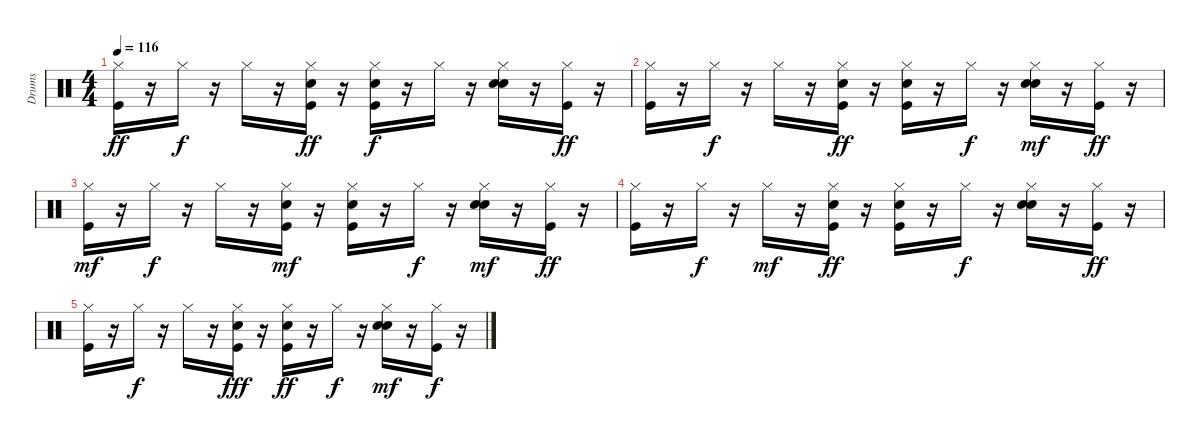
\track ("Drums   " "Drums   ") {instrument percussion}
\staff {score}
\articulation defaults
\ts (4 4)
\tempo 116
\clef neutral
\ks c
("Hi-Hat (closed)" "Kick (hit)").16{dy ff volume 10} r.16 "Hi-Hat (closed)".16{dy f volume 9} r.16 "Hi-Hat (closed)".16{volume 9} r.16 ("Hi-Hat (closed)" "Hand Clap (hit)" "Kick (hit)").16{dy ff volume 9} r.16 ("Hi-Hat (closed)" "Hand Clap (hit)" "Kick (hit)").16{dy f volume 9} r.16 "Hi-Hat (closed)".16{volume 8} r.16 ("Hi-Hat (closed)" "Hand Clap (hit)" "Snare (hit) 2").16{volume 8} r.16 ("Hi-Hat (closed)" "Kick (hit)").16{dy ff volume 8} r.16 |
("Hi-Hat (closed)" "Kick (hit)").16{volume 8} r.16 "Hi-Hat (closed)".16{dy f volume 7} r.16 "Hi-Hat (closed)".16{volume 7} r.16 ("Hi-Hat (closed)" "Hand Clap (hit)" "Kick (hit)").16{dy ff volume 7} r.16 ("Hi-Hat (closed)" "Hand Clap (hit)" "Kick (hit)").16{volume 7} r.16 "Hi-Hat (closed)".16{dy f volume 6} r.16 ("Hi-Hat (closed)" "Hand Clap (hit)" "Snare (hit) 2").16{dy mf volume 6} r.16 ("Hi-Hat (closed)" "Kick (hit)").16{dy ff volume 6} r.16 |
("Hi-Hat (closed)" "Kick (hit)").16{dy mf volume 6} r.16 "Hi-Hat (closed)".16{dy f volume 6} r.16 "Hi-Hat (closed)".16{volume 5} r.16 ("Hi-Hat (closed)" "Hand Clap (hit)" "Kick (hit)").16{dy mf volume 5} r.16 ("Hi-Hat (closed)" "Hand Clap (hit)" "Kick (hit)").16{volume 5} r.16 "Hi-Hat (closed)".16{dy f volume 4} r.16 ("Hi-Hat (closed)" "Hand Clap (hit)" "Snare (hit) 2").16{dy mf volume 4} r.16 ("Hi-Hat (closed)" "Kick (hit)").16{dy ff volume 4} r.16 |
("Hi-Hat (closed)" "Kick (hit)").16{volume 4} r.16 "Hi-Hat (closed)".16{dy f volume 4} r.16 "Hi-Hat (closed)".16{dy mf volume 3} r.16 ("Hi-Hat (closed)" "Hand Clap (hit)" "Kick (hit)").16{dy ff volume 3} r.16 ("Hi-Hat (closed)" "Hand Clap (hit)" "Kick (hit)").16{volume 3} r.16 "Hi-Hat (closed)".16{dy f volume 3} r.16 ("Hi-Hat (closed)" "Hand Clap (hit)" "Snare (hit) 2").16{volume 2} r.16 ("Hi-Hat (closed)" "Kick (hit)").16{dy ff volume 2} r.16 |
("Hi-Hat (closed)" "Kick (hit)").16{volume 2} r.16 "Hi-Hat (closed)".16{dy f volume 2} r.16 "Hi-Hat (closed)".16{volume 1} r.16 ("Hi-Hat (closed)" "Hand Clap (hit)" "Kick (hit)").16{dy fff volume 1} r.16 ("Hi-Hat (closed)" "Hand Clap (hit)" "Kick (hit)").16{dy ff volume 1} r.16 "Hi-Hat (closed)".16{dy f volume 1} r.16 ("Hi-Hat (closed)" "Hand Clap (hit)" "Snare (hit) 2").16{dy mf volume 0} r.16 ("Hi-Hat (closed)" "Kick (hit)").16{dy f volume 0} r.16
